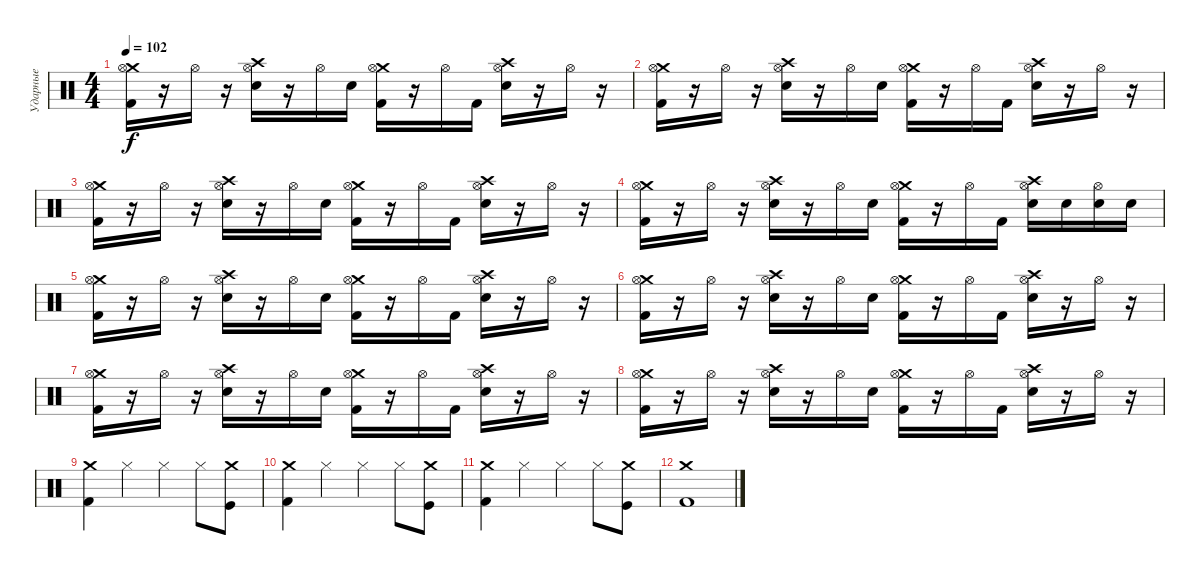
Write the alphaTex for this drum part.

\track ("Ударные" "Ударные") {instrument percussion}
\staff {score}
\articulation defaults
\ts (4 4)
\tempo 102
\clef neutral
\ks c
("Crash medium (hit)" "Hi-Hat (open)" "Kick (hit) 2").16{dy f} r.16 "Hi-Hat (open)".16 r.16 ("Crash high (hit)" "Hi-Hat (open)" "Electric Snare (hit)").16 r.16 "Hi-Hat (open)".16 "Electric Snare (hit)".16 ("Crash medium (hit)" "Hi-Hat (open)" "Kick (hit) 2").16 r.16 "Hi-Hat (open)".16 "Kick (hit) 2".16 ("Crash high (hit)" "Hi-Hat (open)" "Electric Snare (hit)").16 r.16 "Hi-Hat (open)".16 r.16 |
("Crash medium (hit)" "Hi-Hat (open)" "Kick (hit) 2").16 r.16 "Hi-Hat (open)".16 r.16 ("Crash high (hit)" "Hi-Hat (open)" "Electric Snare (hit)").16 r.16 "Hi-Hat (open)".16 "Electric Snare (hit)".16 ("Crash medium (hit)" "Hi-Hat (open)" "Kick (hit) 2").16 r.16 "Hi-Hat (open)".16 "Kick (hit) 2".16 ("Crash high (hit)" "Hi-Hat (open)" "Electric Snare (hit)").16 r.16 "Hi-Hat (open)".16 r.16 |
("Crash medium (hit)" "Hi-Hat (open)" "Kick (hit) 2").16 r.16 "Hi-Hat (open)".16 r.16 ("Crash high (hit)" "Hi-Hat (open)" "Electric Snare (hit)").16 r.16 "Hi-Hat (open)".16 "Electric Snare (hit)".16 ("Crash medium (hit)" "Hi-Hat (open)" "Kick (hit) 2").16 r.16 "Hi-Hat (open)".16 "Kick (hit) 2".16 ("Crash high (hit)" "Hi-Hat (open)" "Electric Snare (hit)").16 r.16 "Hi-Hat (open)".16 r.16 |
("Crash medium (hit)" "Hi-Hat (open)" "Kick (hit) 2").16 r.16 "Hi-Hat (open)".16 r.16 ("Crash high (hit)" "Hi-Hat (open)" "Electric Snare (hit)").16 r.16 "Hi-Hat (open)".16 "Electric Snare (hit)".16 ("Crash medium (hit)" "Hi-Hat (open)" "Kick (hit) 2").16 r.16 "Hi-Hat (open)".16 "Kick (hit) 2".16 ("Crash high (hit)" "Hi-Hat (open)" "Electric Snare (hit)").16 "Electric Snare (hit)".16 ("Hi-Hat (open)" "Electric Snare (hit)").16 "Electric Snare (hit)".16 |
("Crash medium (hit)" "Hi-Hat (open)" "Kick (hit) 2").16 r.16 "Hi-Hat (open)".16 r.16 ("Crash high (hit)" "Hi-Hat (open)" "Electric Snare (hit)").16 r.16 "Hi-Hat (open)".16 "Electric Snare (hit)".16 ("Crash medium (hit)" "Hi-Hat (open)" "Kick (hit) 2").16 r.16 "Hi-Hat (open)".16 "Kick (hit) 2".16 ("Crash high (hit)" "Hi-Hat (open)" "Electric Snare (hit)").16 r.16 "Hi-Hat (open)".16 r.16 |
("Crash medium (hit)" "Hi-Hat (open)" "Kick (hit) 2").16 r.16 "Hi-Hat (open)".16 r.16 ("Crash high (hit)" "Hi-Hat (open)" "Electric Snare (hit)").16 r.16 "Hi-Hat (open)".16 "Electric Snare (hit)".16 ("Crash medium (hit)" "Hi-Hat (open)" "Kick (hit) 2").16 r.16 "Hi-Hat (open)".16 "Kick (hit) 2".16 ("Crash high (hit)" "Hi-Hat (open)" "Electric Snare (hit)").16 r.16 "Hi-Hat (open)".16 r.16 |
("Crash medium (hit)" "Hi-Hat (open)" "Kick (hit) 2").16 r.16 "Hi-Hat (open)".16 r.16 ("Crash high (hit)" "Hi-Hat (open)" "Electric Snare (hit)").16 r.16 "Hi-Hat (open)".16 "Electric Snare (hit)".16 ("Crash medium (hit)" "Hi-Hat (open)" "Kick (hit) 2").16 r.16 "Hi-Hat (open)".16 "Kick (hit) 2".16 ("Crash high (hit)" "Hi-Hat (open)" "Electric Snare (hit)").16 r.16 "Hi-Hat (open)".16 r.16 |
("Crash medium (hit)" "Hi-Hat (open)" "Kick (hit) 2").16 r.16 "Hi-Hat (open)".16 r.16 ("Crash high (hit)" "Hi-Hat (open)" "Electric Snare (hit)").16 r.16 "Hi-Hat (open)".16 "Electric Snare (hit)".16 ("Crash medium (hit)" "Hi-Hat (open)" "Kick (hit) 2").16 r.16 "Hi-Hat (open)".16 "Kick (hit) 2".16 ("Crash high (hit)" "Hi-Hat (open)" "Electric Snare (hit)").16 r.16 "Hi-Hat (open)".16 r.16 |
("Crash medium (hit)" "Kick (hit) 2").4 "Hi-Hat (closed)".4 "Hi-Hat (closed)".4 "Hi-Hat (closed)".8 ("Crash medium (hit)" "Kick (hit)").8 |
("Crash medium (hit)" "Kick (hit) 2").4 "Hi-Hat (closed)".4 "Hi-Hat (closed)".4 "Hi-Hat (closed)".8 ("Crash medium (hit)" "Kick (hit)").8 |
("Crash medium (hit)" "Kick (hit) 2").4 "Hi-Hat (closed)".4 "Hi-Hat (closed)".4 "Hi-Hat (closed)".8 ("Crash medium (hit)" "Kick (hit)").8 |
("Crash medium (hit)" "Kick (hit) 2").1
